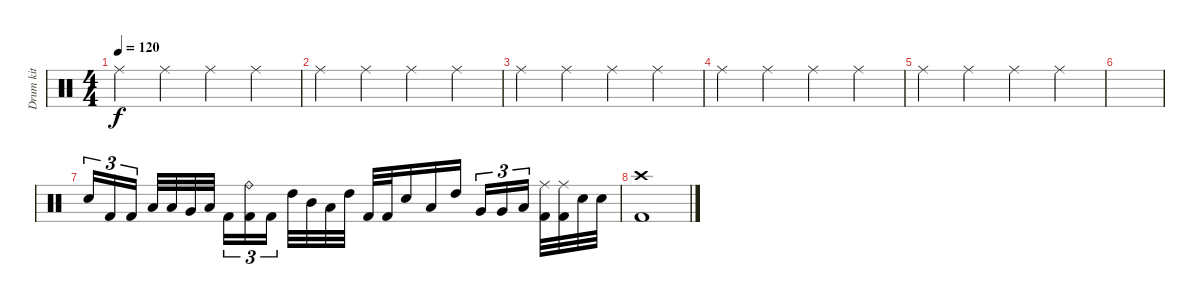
\track ("Drum kit" "Drum kit") {instrument percussion}
\staff {score}
\articulation defaults
\ts (4 4)
\tempo 120
\clef neutral
\ks c "Ride (middle)".4{dy f} "Ride (middle)".4 "Ride (middle)".4 "Ride (middle)".4
|
"Ride (middle)".4 "Ride (middle)".4 "Ride (middle)".4 "Ride (middle)".4 |
"Ride (middle)".4 "Ride (middle)".4 "Ride (middle)".4 "Ride (middle)".4 |
"Ride (middle)".4 "Ride (middle)".4 "Ride (middle)".4 "Ride (middle)".4 |
"Ride (middle)".4 "Ride (middle)".4 "Ride (middle)".4 "Ride (middle)".4 |
|
"Electric Snare (hit)".16{tu (3 2)} "Kick (hit) 2".16{tu (3 2)} "Kick (hit) 2".16{tu (3 2) beam splitsecondary} "Low Floor Tom (hit)".32 "Low Tom (hit)".32 "Very Low Tom (hit)".32 "Low Tom (hit)".32 "Kick (hit) 2".16{tu (3 2)} ("Ride (bell)" "Kick (hit) 2").16{tu (3 2)} "Kick (hit) 2".16{tu (3 2) beam splitsecondary} "High Tom (hit)".32 "Mid Tom (hit)".32 "Low Tom (hit)".32 "High Tom (hit)".32 "Kick (hit) 2".32 "Kick (hit) 2".32 "Electric Snare (hit)".16 "Low Floor Tom (hit)".16 "High Tom (hit)".16 "Very Low Tom (hit)".16{tu (3 2)} "Very Low Tom (hit)".16{tu (3 2)} "Low Tom (hit)".16{tu (3 2) beam splitsecondary} ("Ride (middle)" "Kick (hit) 2").32 ("Ride (middle)" "Kick (hit) 2").32 "Electric Snare (hit)".32 "Electric Snare (hit)".32 |
("Crash high (hit)" "Kick (hit) 2").1
